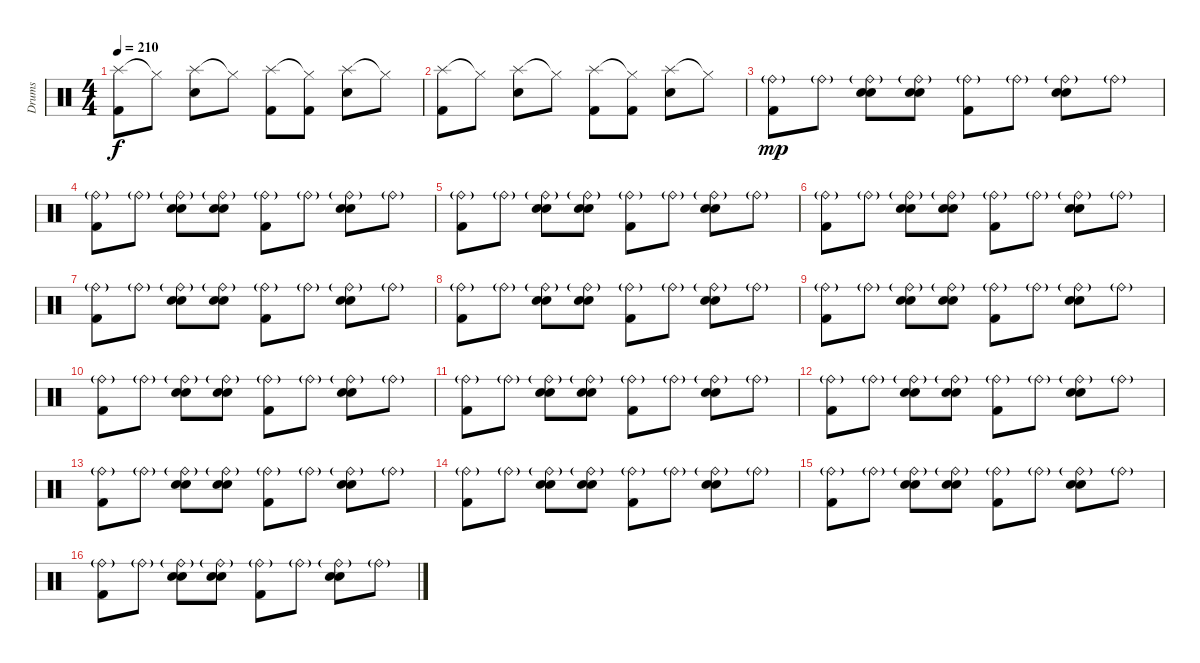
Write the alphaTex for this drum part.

\track ("Drums" "Drums") {instrument percussion}
\staff {score}
\articulation defaults
\ts (4 4)
\tempo 210
\clef neutral
\ks c
("Splash (hit)" "Kick (hit) 2").8{dy f} "Hi-Hat (closed)"{t}.8 ("Splash (hit)" "Electric Snare (hit)").8 "Hi-Hat (closed)"{t}.8 ("Splash (hit)" "Kick (hit) 2").8 ("Hi-Hat (closed)"{t} "Kick (hit) 2").8 ("Splash (hit)" "Electric Snare (hit)").8 "Hi-Hat (closed)"{t}.8 |
("Splash (hit)" "Kick (hit) 2").8 "Hi-Hat (closed)"{t}.8 ("Splash (hit)" "Electric Snare (hit)").8 "Hi-Hat (closed)"{t}.8 ("Splash (hit)" "Kick (hit) 2").8 ("Hi-Hat (closed)"{t} "Kick (hit) 2").8 ("Splash (hit)" "Electric Snare (hit)").8 "Hi-Hat (closed)"{t}.8 |
("Ride (bell)"{g} "Kick (hit) 2").8{dy mp} "Ride (bell)"{g}.8 ("Ride (bell)"{g} "Hand Clap (hit)" "Electric Snare (hit)").8 ("Ride (bell)"{g} "Hand Clap (hit)" "Electric Snare (hit)").8 ("Ride (bell)"{g} "Kick (hit) 2").8 "Ride (bell)"{g}.8 ("Ride (bell)"{g} "Hand Clap (hit)" "Electric Snare (hit)").8 "Ride (bell)"{g}.8 |
("Ride (bell)"{g} "Kick (hit) 2").8 "Ride (bell)"{g}.8 ("Ride (bell)"{g} "Hand Clap (hit)" "Electric Snare (hit)").8 ("Ride (bell)"{g} "Hand Clap (hit)" "Electric Snare (hit)").8 ("Ride (bell)"{g} "Kick (hit) 2").8 "Ride (bell)"{g}.8 ("Ride (bell)"{g} "Hand Clap (hit)" "Electric Snare (hit)").8 "Ride (bell)"{g}.8 |
("Ride (bell)"{g} "Kick (hit) 2").8 "Ride (bell)"{g}.8 ("Ride (bell)"{g} "Hand Clap (hit)" "Electric Snare (hit)").8 ("Ride (bell)"{g} "Hand Clap (hit)" "Electric Snare (hit)").8 ("Ride (bell)"{g} "Kick (hit) 2").8 "Ride (bell)"{g}.8 ("Ride (bell)"{g} "Hand Clap (hit)" "Electric Snare (hit)").8 "Ride (bell)"{g}.8 |
("Ride (bell)"{g} "Kick (hit) 2").8 "Ride (bell)"{g}.8 ("Ride (bell)"{g} "Hand Clap (hit)" "Electric Snare (hit)").8 ("Ride (bell)"{g} "Hand Clap (hit)" "Electric Snare (hit)").8 ("Ride (bell)"{g} "Kick (hit) 2").8 "Ride (bell)"{g}.8 ("Ride (bell)"{g} "Hand Clap (hit)" "Electric Snare (hit)").8 "Ride (bell)"{g}.8 |
("Ride (bell)"{g} "Kick (hit) 2").8 "Ride (bell)"{g}.8 ("Ride (bell)"{g} "Hand Clap (hit)" "Electric Snare (hit)").8 ("Ride (bell)"{g} "Hand Clap (hit)" "Electric Snare (hit)").8 ("Ride (bell)"{g} "Kick (hit) 2").8 "Ride (bell)"{g}.8 ("Ride (bell)"{g} "Hand Clap (hit)" "Electric Snare (hit)").8 "Ride (bell)"{g}.8 |
("Ride (bell)"{g} "Kick (hit) 2").8 "Ride (bell)"{g}.8 ("Ride (bell)"{g} "Hand Clap (hit)" "Electric Snare (hit)").8 ("Ride (bell)"{g} "Hand Clap (hit)" "Electric Snare (hit)").8 ("Ride (bell)"{g} "Kick (hit) 2").8 "Ride (bell)"{g}.8 ("Ride (bell)"{g} "Hand Clap (hit)" "Electric Snare (hit)").8 "Ride (bell)"{g}.8 |
("Ride (bell)"{g} "Kick (hit) 2").8 "Ride (bell)"{g}.8 ("Ride (bell)"{g} "Hand Clap (hit)" "Electric Snare (hit)").8 ("Ride (bell)"{g} "Hand Clap (hit)" "Electric Snare (hit)").8 ("Ride (bell)"{g} "Kick (hit) 2").8 "Ride (bell)"{g}.8 ("Ride (bell)"{g} "Hand Clap (hit)" "Electric Snare (hit)").8 "Ride (bell)"{g}.8 |
("Ride (bell)"{g} "Kick (hit) 2").8 "Ride (bell)"{g}.8 ("Ride (bell)"{g} "Hand Clap (hit)" "Electric Snare (hit)").8 ("Ride (bell)"{g} "Hand Clap (hit)" "Electric Snare (hit)").8 ("Ride (bell)"{g} "Kick (hit) 2").8 "Ride (bell)"{g}.8 ("Ride (bell)"{g} "Hand Clap (hit)" "Electric Snare (hit)").8 "Ride (bell)"{g}.8 |
("Ride (bell)"{g} "Kick (hit) 2").8 "Ride (bell)"{g}.8 ("Ride (bell)"{g} "Hand Clap (hit)" "Electric Snare (hit)").8 ("Ride (bell)"{g} "Hand Clap (hit)" "Electric Snare (hit)").8 ("Ride (bell)"{g} "Kick (hit) 2").8 "Ride (bell)"{g}.8 ("Ride (bell)"{g} "Hand Clap (hit)" "Electric Snare (hit)").8 "Ride (bell)"{g}.8 |
("Ride (bell)"{g} "Kick (hit) 2").8 "Ride (bell)"{g}.8 ("Ride (bell)"{g} "Hand Clap (hit)" "Electric Snare (hit)").8 ("Ride (bell)"{g} "Hand Clap (hit)" "Electric Snare (hit)").8 ("Ride (bell)"{g} "Kick (hit) 2").8 "Ride (bell)"{g}.8 ("Ride (bell)"{g} "Hand Clap (hit)" "Electric Snare (hit)").8 "Ride (bell)"{g}.8 |
("Ride (bell)"{g} "Kick (hit) 2").8 "Ride (bell)"{g}.8 ("Ride (bell)"{g} "Hand Clap (hit)" "Electric Snare (hit)").8 ("Ride (bell)"{g} "Hand Clap (hit)" "Electric Snare (hit)").8 ("Ride (bell)"{g} "Kick (hit) 2").8 "Ride (bell)"{g}.8 ("Ride (bell)"{g} "Hand Clap (hit)" "Electric Snare (hit)").8 "Ride (bell)"{g}.8 |
("Ride (bell)"{g} "Kick (hit) 2").8 "Ride (bell)"{g}.8 ("Ride (bell)"{g} "Hand Clap (hit)" "Electric Snare (hit)").8 ("Ride (bell)"{g} "Hand Clap (hit)" "Electric Snare (hit)").8 ("Ride (bell)"{g} "Kick (hit) 2").8 "Ride (bell)"{g}.8 ("Ride (bell)"{g} "Hand Clap (hit)" "Electric Snare (hit)").8 "Ride (bell)"{g}.8 |
("Ride (bell)"{g} "Kick (hit) 2").8 "Ride (bell)"{g}.8 ("Ride (bell)"{g} "Hand Clap (hit)" "Electric Snare (hit)").8 ("Ride (bell)"{g} "Hand Clap (hit)" "Electric Snare (hit)").8 ("Ride (bell)"{g} "Kick (hit) 2").8 "Ride (bell)"{g}.8 ("Ride (bell)"{g} "Hand Clap (hit)" "Electric Snare (hit)").8 "Ride (bell)"{g}.8 |
("Ride (bell)"{g} "Kick (hit) 2").8 "Ride (bell)"{g}.8 ("Ride (bell)"{g} "Hand Clap (hit)" "Electric Snare (hit)").8 ("Ride (bell)"{g} "Hand Clap (hit)" "Electric Snare (hit)").8 ("Ride (bell)"{g} "Kick (hit) 2").8 "Ride (bell)"{g}.8 ("Ride (bell)"{g} "Hand Clap (hit)" "Electric Snare (hit)").8 "Ride (bell)"{g}.8
